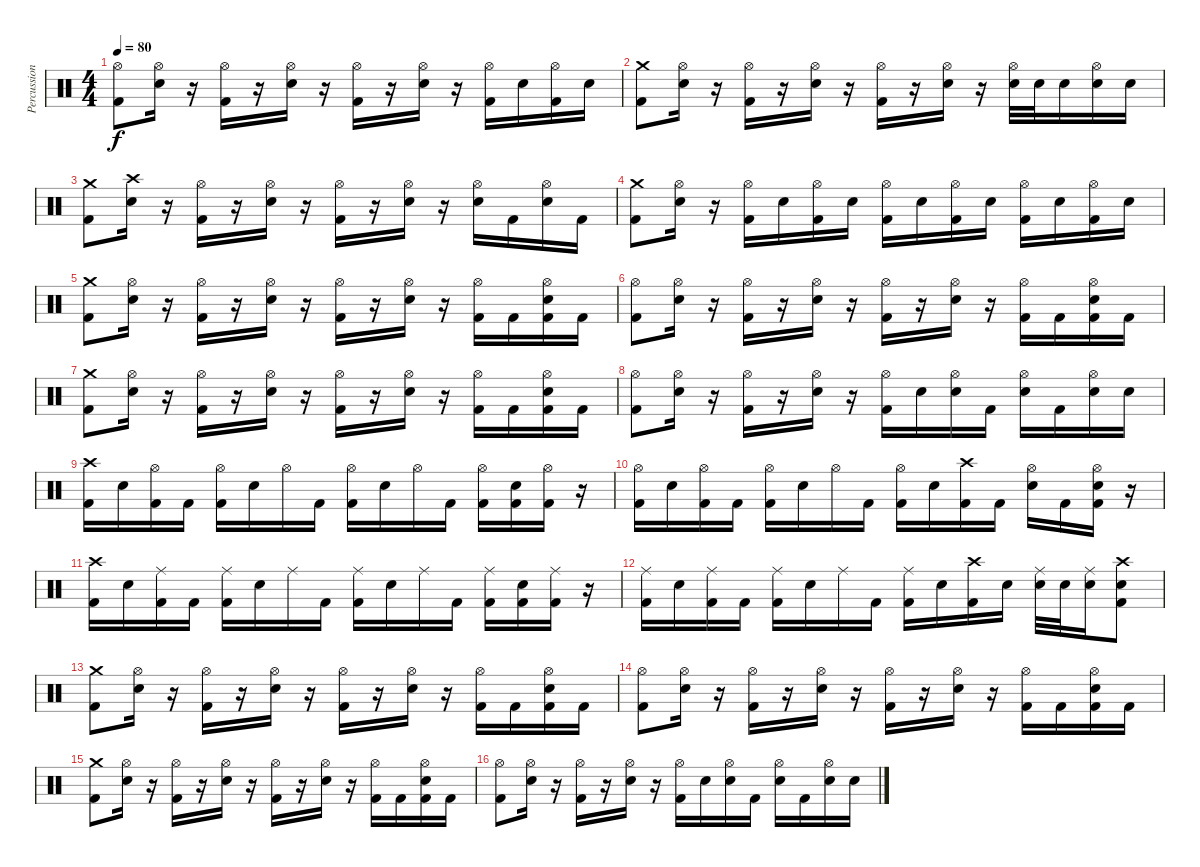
\track ("Percussion" "Percussion") {instrument percussion}
\staff {score}
\articulation defaults
\ts (4 4)
\tempo 80
\clef neutral
\ks c
("Hi-Hat (open)" "Kick (hit) 2").8{dy f} ("Hi-Hat (open)" "Electric Snare (hit)").16 r.16 ("Hi-Hat (open)" "Kick (hit) 2").16 r.16 ("Hi-Hat (open)" "Electric Snare (hit)").16 r.16 ("Hi-Hat (open)" "Kick (hit) 2").16 r.16 ("Hi-Hat (open)" "Electric Snare (hit)").16 r.16 ("Hi-Hat (open)" "Kick (hit) 2").16 "Electric Snare (hit)".16 ("Hi-Hat (open)" "Kick (hit) 2").16 "Electric Snare (hit)".16 |
("Crash medium (hit)" "Kick (hit) 2").8 ("Hi-Hat (open)" "Electric Snare (hit)").16 r.16 ("Hi-Hat (open)" "Kick (hit) 2").16 r.16 ("Hi-Hat (open)" "Electric Snare (hit)").16 r.16 ("Hi-Hat (open)" "Kick (hit) 2").16 r.16 ("Hi-Hat (open)" "Electric Snare (hit)").16 r.16 ("Hi-Hat (open)" "Electric Snare (hit)").32 "Electric Snare (hit)".32 "Electric Snare (hit)".16 ("Hi-Hat (open)" "Electric Snare (hit)").16 "Electric Snare (hit)".16 |
("Crash medium (hit)" "Kick (hit) 2").8 ("Crash high (hit)" "Electric Snare (hit)").16 r.16 ("Hi-Hat (open)" "Kick (hit) 2").16 r.16 ("Hi-Hat (open)" "Electric Snare (hit)").16 r.16 ("Hi-Hat (open)" "Kick (hit) 2").16 r.16 ("Hi-Hat (open)" "Electric Snare (hit)").16 r.16 ("Hi-Hat (open)" "Electric Snare (hit)").16 "Kick (hit) 2".16 ("Hi-Hat (open)" "Electric Snare (hit)").16 "Kick (hit) 2".16 |
("Crash medium (hit)" "Kick (hit) 2").8 ("Hi-Hat (open)" "Electric Snare (hit)").16 r.16 ("Hi-Hat (open)" "Kick (hit) 2").16 "Electric Snare (hit)".16 ("Hi-Hat (open)" "Kick (hit) 2").16 "Electric Snare (hit)".16 ("Hi-Hat (open)" "Kick (hit) 2").16 "Electric Snare (hit)".16 ("Hi-Hat (open)" "Kick (hit) 2").16 "Electric Snare (hit)".16 ("Hi-Hat (open)" "Kick (hit) 2").16 "Electric Snare (hit)".16 ("Hi-Hat (open)" "Kick (hit) 2").16 "Electric Snare (hit)".16 |
("Crash medium (hit)" "Kick (hit) 2").8 ("Hi-Hat (open)" "Electric Snare (hit)").16 r.16 ("Hi-Hat (open)" "Kick (hit) 2").16 r.16 ("Hi-Hat (open)" "Electric Snare (hit)").16 r.16 ("Hi-Hat (open)" "Kick (hit) 2").16 r.16 ("Hi-Hat (open)" "Electric Snare (hit)").16 r.16 ("Hi-Hat (open)" "Kick (hit) 2").16 "Kick (hit) 2".16 ("Hi-Hat (open)" "Electric Snare (hit)" "Kick (hit) 2").16 "Kick (hit) 2".16 |
("Hi-Hat (open)" "Kick (hit) 2").8 ("Hi-Hat (open)" "Electric Snare (hit)").16 r.16 ("Hi-Hat (open)" "Kick (hit) 2").16 r.16 ("Hi-Hat (open)" "Electric Snare (hit)").16 r.16 ("Hi-Hat (open)" "Kick (hit) 2").16 r.16 ("Hi-Hat (open)" "Electric Snare (hit)").16 r.16 ("Hi-Hat (open)" "Kick (hit) 2").16 "Kick (hit) 2".16 ("Hi-Hat (open)" "Electric Snare (hit)" "Kick (hit) 2").16 "Kick (hit) 2".16 |
("Crash medium (hit)" "Kick (hit) 2").8 ("Hi-Hat (open)" "Electric Snare (hit)").16 r.16 ("Hi-Hat (open)" "Kick (hit) 2").16 r.16 ("Hi-Hat (open)" "Electric Snare (hit)").16 r.16 ("Hi-Hat (open)" "Kick (hit) 2").16 r.16 ("Hi-Hat (open)" "Electric Snare (hit)").16 r.16 ("Hi-Hat (open)" "Kick (hit) 2").16 "Kick (hit) 2".16 ("Hi-Hat (open)" "Electric Snare (hit)" "Kick (hit) 2").16 "Kick (hit) 2".16 |
("Hi-Hat (open)" "Kick (hit) 2").8 ("Hi-Hat (open)" "Electric Snare (hit)").16 r.16 ("Hi-Hat (open)" "Kick (hit) 2").16 r.16 ("Hi-Hat (open)" "Electric Snare (hit)").16 r.16 ("Hi-Hat (open)" "Kick (hit) 2").16 "Electric Snare (hit)".16 ("Hi-Hat (open)" "Electric Snare (hit)").16 "Kick (hit) 2".16 ("Hi-Hat (open)" "Electric Snare (hit)").16 "Kick (hit) 2".16 ("Hi-Hat (open)" "Electric Snare (hit)").16 "Electric Snare (hit)".16 |
("Crash high (hit)" "Kick (hit) 2").16 "Electric Snare (hit)".16 ("Hi-Hat (open)" "Kick (hit) 2").16 "Kick (hit) 2".16 ("Hi-Hat (open)" "Kick (hit) 2").16 "Electric Snare (hit)".16 "Hi-Hat (open)".16 "Kick (hit) 2".16 ("Hi-Hat (open)" "Kick (hit) 2").16 "Electric Snare (hit)".16 "Hi-Hat (open)".16 "Kick (hit) 2".16 ("Hi-Hat (open)" "Kick (hit) 2").16 ("Electric Snare (hit)" "Kick (hit) 2").16 ("Hi-Hat (open)" "Kick (hit) 2").16 r.16 |
("Hi-Hat (open)" "Kick (hit) 2").16 "Electric Snare (hit)".16 ("Hi-Hat (open)" "Kick (hit) 2").16 "Kick (hit) 2".16 ("Hi-Hat (open)" "Kick (hit) 2").16 "Electric Snare (hit)".16 "Hi-Hat (open)".16 "Kick (hit) 2".16 ("Hi-Hat (open)" "Kick (hit) 2").16 "Electric Snare (hit)".16 ("Crash high (hit)" "Kick (hit) 2").16 "Kick (hit) 2".16 ("Hi-Hat (open)" "Electric Snare (hit)").16 "Kick (hit) 2".16 ("Hi-Hat (open)" "Electric Snare (hit)" "Kick (hit) 2").16 r.16 |
("Crash high (hit)" "Kick (hit) 2").16 "Electric Snare (hit)".16 ("Ride (middle)" "Kick (hit) 2").16 "Kick (hit) 2".16 ("Ride (middle)" "Kick (hit) 2").16 "Electric Snare (hit)".16 "Ride (middle)".16 "Kick (hit) 2".16 ("Ride (middle)" "Kick (hit) 2").16 "Electric Snare (hit)".16 "Ride (middle)".16 "Kick (hit) 2".16 ("Ride (middle)" "Kick (hit) 2").16 ("Electric Snare (hit)" "Kick (hit) 2").16 ("Ride (middle)" "Kick (hit) 2").16 r.16 |
("Ride (middle)" "Kick (hit) 2").16 "Electric Snare (hit)".16 ("Ride (middle)" "Kick (hit) 2").16 "Kick (hit) 2".16 ("Ride (middle)" "Kick (hit) 2").16 "Electric Snare (hit)".16 "Ride (middle)".16 "Kick (hit) 2".16 ("Ride (middle)" "Kick (hit) 2").16 "Electric Snare (hit)".16 ("Crash high (hit)" "Kick (hit) 2").16 "Electric Snare (hit)".16 ("Ride (middle)" "Electric Snare (hit)").32 "Electric Snare (hit)".32 ("Ride (middle)" "Electric Snare (hit)").16 ("Crash high (hit)" "Electric Snare (hit)" "Kick (hit) 2").8 |
("Crash medium (hit)" "Kick (hit) 2").8 ("Hi-Hat (open)" "Electric Snare (hit)").16 r.16 ("Hi-Hat (open)" "Kick (hit) 2").16 r.16 ("Hi-Hat (open)" "Electric Snare (hit)").16 r.16 ("Hi-Hat (open)" "Kick (hit) 2").16 r.16 ("Hi-Hat (open)" "Electric Snare (hit)").16 r.16 ("Hi-Hat (open)" "Kick (hit) 2").16 "Kick (hit) 2".16 ("Hi-Hat (open)" "Electric Snare (hit)" "Kick (hit) 2").16 "Kick (hit) 2".16 |
("Hi-Hat (open)" "Kick (hit) 2").8 ("Hi-Hat (open)" "Electric Snare (hit)").16 r.16 ("Hi-Hat (open)" "Kick (hit) 2").16 r.16 ("Hi-Hat (open)" "Electric Snare (hit)").16 r.16 ("Hi-Hat (open)" "Kick (hit) 2").16 r.16 ("Hi-Hat (open)" "Electric Snare (hit)").16 r.16 ("Hi-Hat (open)" "Kick (hit) 2").16 "Kick (hit) 2".16 ("Hi-Hat (open)" "Electric Snare (hit)" "Kick (hit) 2").16 "Kick (hit) 2".16 |
("Crash medium (hit)" "Kick (hit) 2").8 ("Hi-Hat (open)" "Electric Snare (hit)").16 r.16 ("Hi-Hat (open)" "Kick (hit) 2").16 r.16 ("Hi-Hat (open)" "Electric Snare (hit)").16 r.16 ("Hi-Hat (open)" "Kick (hit) 2").16 r.16 ("Hi-Hat (open)" "Electric Snare (hit)").16 r.16 ("Hi-Hat (open)" "Kick (hit) 2").16 "Kick (hit) 2".16 ("Hi-Hat (open)" "Electric Snare (hit)" "Kick (hit) 2").16 "Kick (hit) 2".16 |
("Hi-Hat (open)" "Kick (hit) 2").8 ("Hi-Hat (open)" "Electric Snare (hit)").16 r.16 ("Hi-Hat (open)" "Kick (hit) 2").16 r.16 ("Hi-Hat (open)" "Electric Snare (hit)").16 r.16 ("Hi-Hat (open)" "Kick (hit) 2").16 "Electric Snare (hit)".16 ("Hi-Hat (open)" "Electric Snare (hit)").16 "Kick (hit) 2".16 ("Hi-Hat (open)" "Electric Snare (hit)").16 "Kick (hit) 2".16 ("Hi-Hat (open)" "Electric Snare (hit)").16 "Electric Snare (hit)".16
